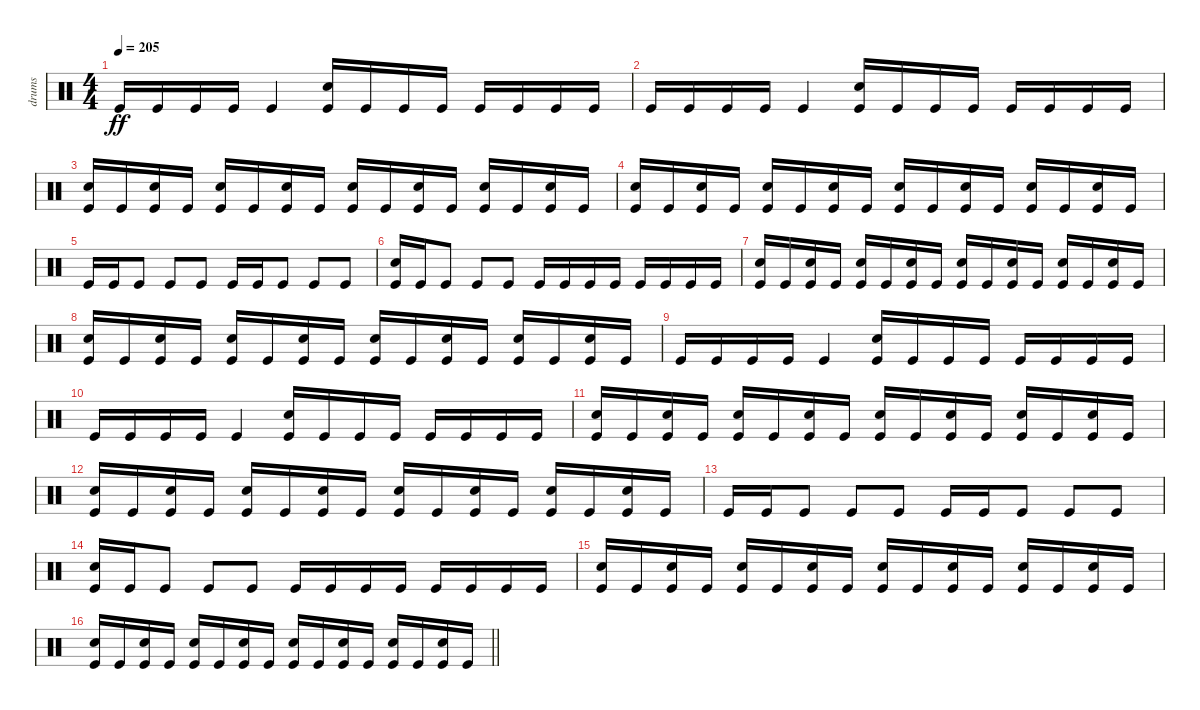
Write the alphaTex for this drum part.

\track ("drums" "drums") {instrument percussion}
\staff {score}
\articulation defaults
\ts (4 4)
\tempo 205
\clef neutral
\ks c "Kick (hit)".16{dy ff} "Kick (hit)".16 "Kick (hit)".16 "Kick (hit)".16 "Kick (hit)".4
("Electric Snare (hit)" "Kick (hit)").16 "Kick (hit)".16 "Kick (hit)".16 "Kick (hit)".16 "Kick (hit)".16 "Kick (hit)".16 "Kick (hit)".16 "Kick (hit)".16 |
"Kick (hit)".16 "Kick (hit)".16 "Kick (hit)".16 "Kick (hit)".16 "Kick (hit)".4 ("Electric Snare (hit)" "Kick (hit)").16 "Kick (hit)".16 "Kick (hit)".16 "Kick (hit)".16 "Kick (hit)".16 "Kick (hit)".16 "Kick (hit)".16 "Kick (hit)".16 |
("Electric Snare (hit)" "Kick (hit)").16 "Kick (hit)".16 ("Electric Snare (hit)" "Kick (hit)").16 "Kick (hit)".16 ("Electric Snare (hit)" "Kick (hit)").16 "Kick (hit)".16 ("Electric Snare (hit)" "Kick (hit)").16 "Kick (hit)".16 ("Electric Snare (hit)" "Kick (hit)").16 "Kick (hit)".16 ("Electric Snare (hit)" "Kick (hit)").16 "Kick (hit)".16 ("Electric Snare (hit)" "Kick (hit)").16 "Kick (hit)".16 ("Electric Snare (hit)" "Kick (hit)").16 "Kick (hit)".16 |
("Electric Snare (hit)" "Kick (hit)").16 "Kick (hit)".16 ("Electric Snare (hit)" "Kick (hit)").16 "Kick (hit)".16 ("Electric Snare (hit)" "Kick (hit)").16 "Kick (hit)".16 ("Electric Snare (hit)" "Kick (hit)").16 "Kick (hit)".16 ("Electric Snare (hit)" "Kick (hit)").16 "Kick (hit)".16 ("Electric Snare (hit)" "Kick (hit)").16 "Kick (hit)".16 ("Electric Snare (hit)" "Kick (hit)").16 "Kick (hit)".16 ("Electric Snare (hit)" "Kick (hit)").16 "Kick (hit)".16 |
"Kick (hit)".16 "Kick (hit)".16 "Kick (hit)".8 "Kick (hit)".8 "Kick (hit)".8 "Kick (hit)".16 "Kick (hit)".16 "Kick (hit)".8 "Kick (hit)".8 "Kick (hit)".8 |
("Electric Snare (hit)" "Kick (hit)").16 "Kick (hit)".16 "Kick (hit)".8 "Kick (hit)".8 "Kick (hit)".8 "Kick (hit)".16 "Kick (hit)".16 "Kick (hit)".16 "Kick (hit)".16 "Kick (hit)".16 "Kick (hit)".16 "Kick (hit)".16 "Kick (hit)".16 |
("Electric Snare (hit)" "Kick (hit)").16 "Kick (hit)".16 ("Electric Snare (hit)" "Kick (hit)").16 "Kick (hit)".16 ("Electric Snare (hit)" "Kick (hit)").16 "Kick (hit)".16 ("Electric Snare (hit)" "Kick (hit)").16 "Kick (hit)".16 ("Electric Snare (hit)" "Kick (hit)").16 "Kick (hit)".16 ("Electric Snare (hit)" "Kick (hit)").16 "Kick (hit)".16 ("Electric Snare (hit)" "Kick (hit)").16 "Kick (hit)".16 ("Electric Snare (hit)" "Kick (hit)").16 "Kick (hit)".16 |
("Electric Snare (hit)" "Kick (hit)").16 "Kick (hit)".16 ("Electric Snare (hit)" "Kick (hit)").16 "Kick (hit)".16 ("Electric Snare (hit)" "Kick (hit)").16 "Kick (hit)".16 ("Electric Snare (hit)" "Kick (hit)").16 "Kick (hit)".16 ("Electric Snare (hit)" "Kick (hit)").16 "Kick (hit)".16 ("Electric Snare (hit)" "Kick (hit)").16 "Kick (hit)".16 ("Electric Snare (hit)" "Kick (hit)").16 "Kick (hit)".16 ("Electric Snare (hit)" "Kick (hit)").16 "Kick (hit)".16 |
"Kick (hit)".16 "Kick (hit)".16 "Kick (hit)".16 "Kick (hit)".16 "Kick (hit)".4 ("Electric Snare (hit)" "Kick (hit)").16 "Kick (hit)".16 "Kick (hit)".16 "Kick (hit)".16 "Kick (hit)".16 "Kick (hit)".16 "Kick (hit)".16 "Kick (hit)".16 |
"Kick (hit)".16 "Kick (hit)".16 "Kick (hit)".16 "Kick (hit)".16 "Kick (hit)".4 ("Electric Snare (hit)" "Kick (hit)").16 "Kick (hit)".16 "Kick (hit)".16 "Kick (hit)".16 "Kick (hit)".16 "Kick (hit)".16 "Kick (hit)".16 "Kick (hit)".16 |
("Electric Snare (hit)" "Kick (hit)").16 "Kick (hit)".16 ("Electric Snare (hit)" "Kick (hit)").16 "Kick (hit)".16 ("Electric Snare (hit)" "Kick (hit)").16 "Kick (hit)".16 ("Electric Snare (hit)" "Kick (hit)").16 "Kick (hit)".16 ("Electric Snare (hit)" "Kick (hit)").16 "Kick (hit)".16 ("Electric Snare (hit)" "Kick (hit)").16 "Kick (hit)".16 ("Electric Snare (hit)" "Kick (hit)").16 "Kick (hit)".16 ("Electric Snare (hit)" "Kick (hit)").16 "Kick (hit)".16 |
("Electric Snare (hit)" "Kick (hit)").16 "Kick (hit)".16 ("Electric Snare (hit)" "Kick (hit)").16 "Kick (hit)".16 ("Electric Snare (hit)" "Kick (hit)").16 "Kick (hit)".16 ("Electric Snare (hit)" "Kick (hit)").16 "Kick (hit)".16 ("Electric Snare (hit)" "Kick (hit)").16 "Kick (hit)".16 ("Electric Snare (hit)" "Kick (hit)").16 "Kick (hit)".16 ("Electric Snare (hit)" "Kick (hit)").16 "Kick (hit)".16 ("Electric Snare (hit)" "Kick (hit)").16 "Kick (hit)".16 |
"Kick (hit)".16 "Kick (hit)".16 "Kick (hit)".8 "Kick (hit)".8 "Kick (hit)".8 "Kick (hit)".16 "Kick (hit)".16 "Kick (hit)".8 "Kick (hit)".8 "Kick (hit)".8 |
("Electric Snare (hit)" "Kick (hit)").16 "Kick (hit)".16 "Kick (hit)".8 "Kick (hit)".8 "Kick (hit)".8 "Kick (hit)".16 "Kick (hit)".16 "Kick (hit)".16 "Kick (hit)".16 "Kick (hit)".16 "Kick (hit)".16 "Kick (hit)".16 "Kick (hit)".16 |
("Electric Snare (hit)" "Kick (hit)").16 "Kick (hit)".16 ("Electric Snare (hit)" "Kick (hit)").16 "Kick (hit)".16 ("Electric Snare (hit)" "Kick (hit)").16 "Kick (hit)".16 ("Electric Snare (hit)" "Kick (hit)").16 "Kick (hit)".16 ("Electric Snare (hit)" "Kick (hit)").16 "Kick (hit)".16 ("Electric Snare (hit)" "Kick (hit)").16 "Kick (hit)".16 ("Electric Snare (hit)" "Kick (hit)").16 "Kick (hit)".16 ("Electric Snare (hit)" "Kick (hit)").16 "Kick (hit)".16 |
\barLineRight lightlight
("Electric Snare (hit)" "Kick (hit)").16 "Kick (hit)".16 ("Electric Snare (hit)" "Kick (hit)").16 "Kick (hit)".16 ("Electric Snare (hit)" "Kick (hit)").16 "Kick (hit)".16 ("Electric Snare (hit)" "Kick (hit)").16 "Kick (hit)".16 ("Electric Snare (hit)" "Kick (hit)").16 "Kick (hit)".16 ("Electric Snare (hit)" "Kick (hit)").16 "Kick (hit)".16 ("Electric Snare (hit)" "Kick (hit)").16 "Kick (hit)".16 ("Electric Snare (hit)" "Kick (hit)").16 "Kick (hit)".16
